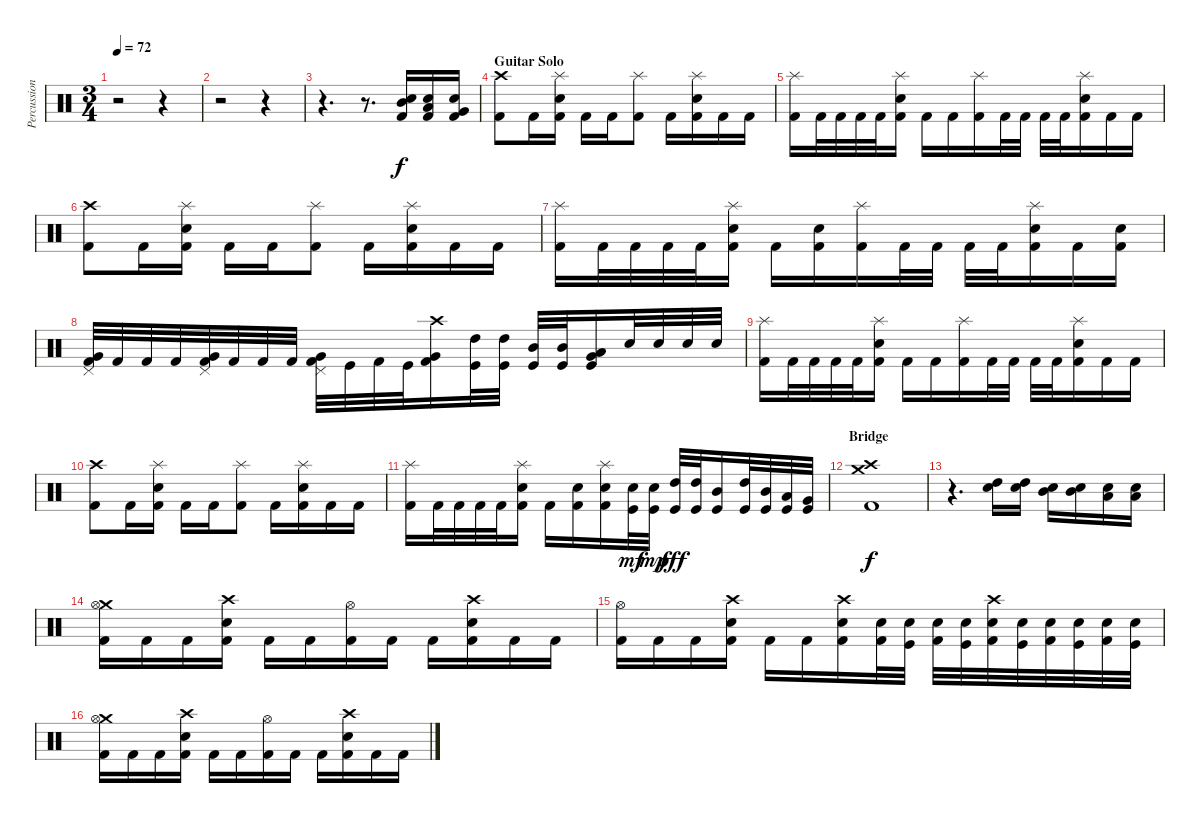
\track ("Percussion" "Percussion") {instrument percussion}
\staff {score}
\articulation defaults
\ts (3 4)
\tempo 72
\clef neutral
\ks c
r.2{dy f} r.4 |
r.2 r.4 |
r.4{d} r.8{d} ("Electric Snare (hit)" "Mid Tom (hit)" "Kick (hit) 2").16 ("Electric Snare (hit)" "Low Tom (hit)" "Kick (hit) 2").16 ("Electric Snare (hit)" "Very Low Tom (hit)" "Kick (hit) 2").16 |
\section ("" "Guitar Solo")
("Crash high (hit)" "Kick (hit) 2").8 "Kick (hit) 2".16 ("Splash (hit)" "Electric Snare (hit)" "Kick (hit) 2").16 "Kick (hit) 2".16 "Kick (hit) 2".16 ("Splash (hit)" "Kick (hit) 2").8 "Kick (hit) 2".16 ("Splash (hit)" "Electric Snare (hit)" "Kick (hit) 2").16 "Kick (hit) 2".16 "Kick (hit) 2".16 |
("Splash (hit)" "Kick (hit) 2").16 "Kick (hit) 2".32 "Kick (hit) 2".32 "Kick (hit) 2".32 "Kick (hit) 2".32 ("Splash (hit)" "Electric Snare (hit)" "Kick (hit) 2").16 "Kick (hit) 2".16 "Kick (hit) 2".16 ("Splash (hit)" "Kick (hit) 2").16 "Kick (hit) 2".32 "Kick (hit) 2".32 "Kick (hit) 2".32 "Kick (hit) 2".32 ("Splash (hit)" "Electric Snare (hit)" "Kick (hit) 2").16 "Kick (hit) 2".16 "Kick (hit) 2".16 |
("Crash high (hit)" "Kick (hit) 2").8 "Kick (hit) 2".16 ("Splash (hit)" "Electric Snare (hit)" "Kick (hit) 2").16 "Kick (hit) 2".16 "Kick (hit) 2".16 ("Splash (hit)" "Kick (hit) 2").8 "Kick (hit) 2".16 ("Splash (hit)" "Electric Snare (hit)" "Kick (hit) 2").16 "Kick (hit) 2".16 "Kick (hit) 2".16 |
("Splash (hit)" "Kick (hit) 2").16 "Kick (hit) 2".32 "Kick (hit) 2".32 "Kick (hit) 2".32 "Kick (hit) 2".32 ("Splash (hit)" "Electric Snare (hit)" "Kick (hit) 2").16 "Kick (hit) 2".16 ("Electric Snare (hit)" "Kick (hit) 2").16 ("Splash (hit)" "Kick (hit) 2").16 "Kick (hit) 2".32 "Kick (hit) 2".32 "Kick (hit) 2".32 "Kick (hit) 2".32 ("Splash (hit)" "Electric Snare (hit)" "Kick (hit) 2").16 "Kick (hit) 2".16 ("Electric Snare (hit)" "Kick (hit) 2").16 |
("Pedal Hi-Hat (hit)" "Very Low Tom (hit)" "Kick (hit) 2").32 "Kick (hit) 2".32 "Kick (hit) 2".32 "Kick (hit) 2".32 ("Pedal Hi-Hat (hit)" "Very Low Tom (hit)" "Kick (hit) 2").32 "Kick (hit) 2".32 "Kick (hit) 2".32 "Kick (hit) 2".32 ("Pedal Hi-Hat (hit)" "Very Low Tom (hit)" "Kick (hit) 2").32 "Kick (hit)".32 "Kick (hit) 2".32 "Kick (hit)".32 ("Crash high (hit)" "Very Low Tom (hit)" "Kick (hit) 2").16 ("High Tom (hit)" "Kick (hit)").32 ("High Tom (hit)" "Kick (hit)").32 ("Mid Tom (hit)" "Kick (hit)").32 ("Mid Tom (hit)" "Kick (hit)").32 ("Very Low Tom (hit)" "Low Tom (hit)" "Kick (hit)").16 "Electric Snare (hit)".32 "Electric Snare (hit)".32 "Electric Snare (hit)".32 "Electric Snare (hit)".32 |
("Splash (hit)" "Kick (hit) 2").16 "Kick (hit) 2".32 "Kick (hit) 2".32 "Kick (hit) 2".32 "Kick (hit) 2".32 ("Splash (hit)" "Electric Snare (hit)" "Kick (hit) 2").16 "Kick (hit) 2".16 "Kick (hit) 2".16 ("Splash (hit)" "Kick (hit) 2").16 "Kick (hit) 2".32 "Kick (hit) 2".32 "Kick (hit) 2".32 "Kick (hit) 2".32 ("Splash (hit)" "Electric Snare (hit)" "Kick (hit) 2").16 "Kick (hit) 2".16 "Kick (hit) 2".16 |
("Crash high (hit)" "Kick (hit) 2").8 "Kick (hit) 2".16 ("Splash (hit)" "Electric Snare (hit)" "Kick (hit) 2").16 "Kick (hit) 2".16 "Kick (hit) 2".16 ("Splash (hit)" "Kick (hit) 2").8 "Kick (hit) 2".16 ("Splash (hit)" "Electric Snare (hit)" "Kick (hit) 2").16 "Kick (hit) 2".16 "Kick (hit) 2".16 |
("Splash (hit)" "Kick (hit) 2").16 "Kick (hit) 2".32 "Kick (hit) 2".32 "Kick (hit) 2".32 "Kick (hit) 2".32 ("Splash (hit)" "Electric Snare (hit)" "Kick (hit) 2").16 "Kick (hit) 2".16 ("Electric Snare (hit)" "Kick (hit) 2").16 ("Splash (hit)" "Electric Snare (hit)" "Kick (hit) 2").16 ("Electric Snare (hit)" "Kick (hit)").32{dy mf} ("Electric Snare (hit)" "Kick (hit)").32{dy mp} ("High Tom (hit)" "Kick (hit)").32{dy fff} ("High Tom (hit)" "Kick (hit)").32 ("Mid Tom (hit)" "Kick (hit)").16 ("High Tom (hit)" "Kick (hit)").32 ("Mid Tom (hit)" "Kick (hit)").32 ("Low Tom (hit)" "Kick (hit)").32 ("Very Low Tom (hit)" "Kick (hit)").32 |
\section ("" "Bridge")
("Crash medium (hit)" "Crash high (hit)" "Kick (hit) 2").1{dy f} |
r.4{d} ("High Tom (hit)" "Electric Snare (hit)").16 ("High Tom (hit)" "Electric Snare (hit)").16 ("Mid Tom (hit)" "Electric Snare (hit)").16 ("Mid Tom (hit)" "Electric Snare (hit)").16 ("Low Tom (hit)" "Electric Snare (hit)").16 ("Low Tom (hit)" "Electric Snare (hit)").16 |
("Crash medium (hit)" "Hi-Hat (open)" "Kick (hit) 2").16 "Kick (hit) 2".16 "Kick (hit) 2".16 ("Crash high (hit)" "Electric Snare (hit)" "Kick (hit) 2").16 "Kick (hit) 2".16 "Kick (hit) 2".16 ("Hi-Hat (open)" "Kick (hit) 2").16 "Kick (hit) 2".16 "Kick (hit) 2".16 ("Crash high (hit)" "Electric Snare (hit)" "Kick (hit) 2").16 "Kick (hit) 2".16 "Kick (hit) 2".16 |
("Hi-Hat (open)" "Kick (hit) 2").16 "Kick (hit) 2".16 "Kick (hit) 2".16 ("Crash high (hit)" "Electric Snare (hit)" "Kick (hit) 2").16 "Kick (hit) 2".16 "Kick (hit) 2".16 ("Crash high (hit)" "Electric Snare (hit)" "Kick (hit) 2").16 ("Electric Snare (hit)" "Kick (hit) 2").32 ("Electric Snare (hit)" "Kick (hit)").32 ("Electric Snare (hit)" "Kick (hit) 2").32 ("Electric Snare (hit)" "Kick (hit)").32 ("Crash high (hit)" "Electric Snare (hit)" "Kick (hit) 2").32 ("Electric Snare (hit)" "Kick (hit)").32 ("Electric Snare (hit)" "Kick (hit) 2").32 ("Electric Snare (hit)" "Kick (hit)").32 ("Electric Snare (hit)" "Kick (hit) 2").32 ("Electric Snare (hit)" "Kick (hit)").32 |
("Crash medium (hit)" "Hi-Hat (open)" "Kick (hit) 2").16 "Kick (hit) 2".16 "Kick (hit) 2".16 ("Crash high (hit)" "Electric Snare (hit)" "Kick (hit) 2").16 "Kick (hit) 2".16 "Kick (hit) 2".16 ("Hi-Hat (open)" "Kick (hit) 2").16 "Kick (hit) 2".16 "Kick (hit) 2".16 ("Crash high (hit)" "Electric Snare (hit)" "Kick (hit) 2").16 "Kick (hit) 2".16 "Kick (hit) 2".16
